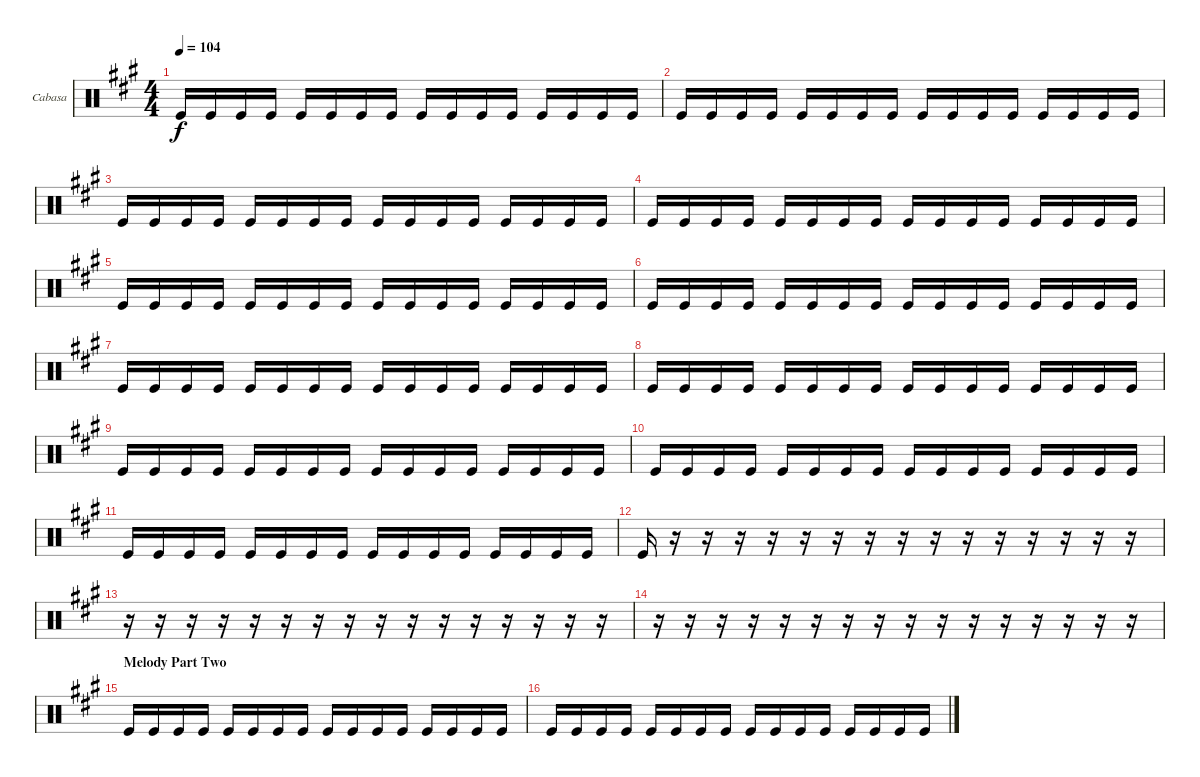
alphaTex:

\bracketExtendMode groupsimilarinstruments
\firstSystemTrackNameOrientation horizontal
\otherSystemsTrackNameOrientation horizontal
\track ("Cabasa" "Cabasa") {instrument percussion}
\staff {score}
\articulation defaults
\ts (4 4)
\tempo 104
\clef neutral
\ks a "Kick (hit)".16{dy f} "Kick (hit)".16 "Kick (hit)".16 "Kick (hit)".16 "Kick (hit)".16 "Kick (hit)".16 "Kick (hit)".16 "Kick (hit)".16 "Kick (hit)".16 "Kick (hit)".16 "Kick (hit)".16 "Kick (hit)".16 "Kick (hit)".16 "Kick (hit)".16 "Kick (hit)".16 "Kick (hit)".16
|
"Kick (hit)".16 "Kick (hit)".16 "Kick (hit)".16 "Kick (hit)".16 "Kick (hit)".16 "Kick (hit)".16 "Kick (hit)".16 "Kick (hit)".16 "Kick (hit)".16 "Kick (hit)".16 "Kick (hit)".16 "Kick (hit)".16 "Kick (hit)".16 "Kick (hit)".16 "Kick (hit)".16 "Kick (hit)".16 |
"Kick (hit)".16 "Kick (hit)".16 "Kick (hit)".16 "Kick (hit)".16 "Kick (hit)".16 "Kick (hit)".16 "Kick (hit)".16 "Kick (hit)".16 "Kick (hit)".16 "Kick (hit)".16 "Kick (hit)".16 "Kick (hit)".16 "Kick (hit)".16 "Kick (hit)".16 "Kick (hit)".16 "Kick (hit)".16 |
"Kick (hit)".16 "Kick (hit)".16 "Kick (hit)".16 "Kick (hit)".16 "Kick (hit)".16 "Kick (hit)".16 "Kick (hit)".16 "Kick (hit)".16 "Kick (hit)".16 "Kick (hit)".16 "Kick (hit)".16 "Kick (hit)".16 "Kick (hit)".16 "Kick (hit)".16 "Kick (hit)".16 "Kick (hit)".16 |
"Kick (hit)".16 "Kick (hit)".16 "Kick (hit)".16 "Kick (hit)".16 "Kick (hit)".16 "Kick (hit)".16 "Kick (hit)".16 "Kick (hit)".16 "Kick (hit)".16 "Kick (hit)".16 "Kick (hit)".16 "Kick (hit)".16 "Kick (hit)".16 "Kick (hit)".16 "Kick (hit)".16 "Kick (hit)".16 |
"Kick (hit)".16 "Kick (hit)".16 "Kick (hit)".16 "Kick (hit)".16 "Kick (hit)".16 "Kick (hit)".16 "Kick (hit)".16 "Kick (hit)".16 "Kick (hit)".16 "Kick (hit)".16 "Kick (hit)".16 "Kick (hit)".16 "Kick (hit)".16 "Kick (hit)".16 "Kick (hit)".16 "Kick (hit)".16 |
"Kick (hit)".16 "Kick (hit)".16 "Kick (hit)".16 "Kick (hit)".16 "Kick (hit)".16 "Kick (hit)".16 "Kick (hit)".16 "Kick (hit)".16 "Kick (hit)".16 "Kick (hit)".16 "Kick (hit)".16 "Kick (hit)".16 "Kick (hit)".16 "Kick (hit)".16 "Kick (hit)".16 "Kick (hit)".16 |
"Kick (hit)".16 "Kick (hit)".16 "Kick (hit)".16 "Kick (hit)".16 "Kick (hit)".16 "Kick (hit)".16 "Kick (hit)".16 "Kick (hit)".16 "Kick (hit)".16 "Kick (hit)".16 "Kick (hit)".16 "Kick (hit)".16 "Kick (hit)".16 "Kick (hit)".16 "Kick (hit)".16 "Kick (hit)".16 |
"Kick (hit)".16 "Kick (hit)".16 "Kick (hit)".16 "Kick (hit)".16 "Kick (hit)".16 "Kick (hit)".16 "Kick (hit)".16 "Kick (hit)".16 "Kick (hit)".16 "Kick (hit)".16 "Kick (hit)".16 "Kick (hit)".16 "Kick (hit)".16 "Kick (hit)".16 "Kick (hit)".16 "Kick (hit)".16 |
"Kick (hit)".16 "Kick (hit)".16 "Kick (hit)".16 "Kick (hit)".16 "Kick (hit)".16 "Kick (hit)".16 "Kick (hit)".16 "Kick (hit)".16 "Kick (hit)".16 "Kick (hit)".16 "Kick (hit)".16 "Kick (hit)".16 "Kick (hit)".16 "Kick (hit)".16 "Kick (hit)".16 "Kick (hit)".16 |
"Kick (hit)".16 "Kick (hit)".16 "Kick (hit)".16 "Kick (hit)".16 "Kick (hit)".16 "Kick (hit)".16 "Kick (hit)".16 "Kick (hit)".16 "Kick (hit)".16 "Kick (hit)".16 "Kick (hit)".16 "Kick (hit)".16 "Kick (hit)".16 "Kick (hit)".16 "Kick (hit)".16 "Kick (hit)".16 |
"Kick (hit)".16 r.16 r.16 r.16 r.16 r.16 r.16 r.16 r.16 r.16 r.16 r.16 r.16 r.16 r.16 r.16 |
r.16 r.16 r.16 r.16 r.16 r.16 r.16 r.16 r.16 r.16 r.16 r.16 r.16 r.16 r.16 r.16 |
r.16 r.16 r.16 r.16 r.16 r.16 r.16 r.16 r.16 r.16 r.16 r.16 r.16 r.16 r.16 r.16 |
\section ("" "Melody Part Two")
"Kick (hit)".16 "Kick (hit)".16 "Kick (hit)".16 "Kick (hit)".16 "Kick (hit)".16 "Kick (hit)".16 "Kick (hit)".16 "Kick (hit)".16 "Kick (hit)".16 "Kick (hit)".16 "Kick (hit)".16 "Kick (hit)".16 "Kick (hit)".16 "Kick (hit)".16 "Kick (hit)".16 "Kick (hit)".16 |
"Kick (hit)".16 "Kick (hit)".16 "Kick (hit)".16 "Kick (hit)".16 "Kick (hit)".16 "Kick (hit)".16 "Kick (hit)".16 "Kick (hit)".16 "Kick (hit)".16 "Kick (hit)".16 "Kick (hit)".16 "Kick (hit)".16 "Kick (hit)".16 "Kick (hit)".16 "Kick (hit)".16 "Kick (hit)".16
